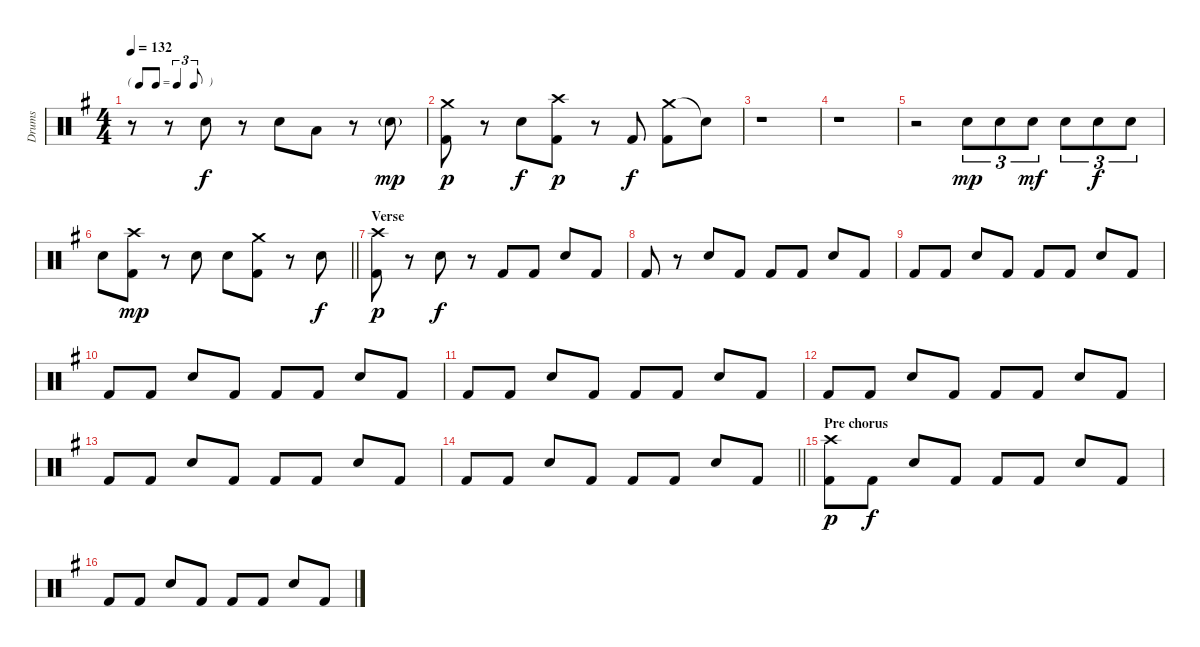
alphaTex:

\track ("Drums" "Drums") {instrument percussion}
\staff {score}
\articulation defaults
\ts (4 4)
\tf triplet8th
\tempo 132
\clef neutral
\ks g
r.8{dy p} r.8 "Electric Snare (hit)".8{dy f} r.8 "Electric Snare (hit)".8 "Low Tom (hit)".8 r.8 "Electric Snare (hit)"{g}.8{dy mp} |
("Crash medium (hit)" "Kick (hit) 2").8{dy p} r.8 "Electric Snare (hit)".8{dy f} ("Crash high (hit)" "Kick (hit) 2").8{dy p} r.8 "Kick (hit) 2".8{dy f} ("Crash medium (hit)" "Kick (hit) 2").8 "Snare (hit)"{t}.8 |
r.1 |
r.1 |
r.2 "Electric Snare (hit)".8{tu (3 2) dy mp} "Electric Snare (hit)".8{tu (3 2)} "Electric Snare (hit)".8{tu (3 2) dy mf} "Electric Snare (hit)".8{tu (3 2)} "Electric Snare (hit)".8{tu (3 2) dy f} "Electric Snare (hit)".8{tu (3 2)} |
\barLineRight lightlight "Electric Snare (hit)".8
("Crash high (hit)" "Kick (hit) 2").8{dy mp} r.8 "Electric Snare (hit)".8 "Electric Snare (hit)".8 ("Crash medium (hit)" "Kick (hit) 2").8 r.8 "Electric Snare (hit)".8{dy f} |
\section ("" "Verse")
("Crash high (hit)" "Kick (hit) 2").8{dy p} r.8 "Electric Snare (hit)".8{dy f} r.8 "Kick (hit) 2".8 "Kick (hit) 2".8 "Electric Snare (hit)".8 "Kick (hit) 2".8 |
"Kick (hit) 2".8 r.8 "Electric Snare (hit)".8 "Kick (hit) 2".8 "Kick (hit) 2".8 "Kick (hit) 2".8 "Electric Snare (hit)".8 "Kick (hit) 2".8 |
"Kick (hit) 2".8 "Kick (hit) 2".8 "Electric Snare (hit)".8 "Kick (hit) 2".8 "Kick (hit) 2".8 "Kick (hit) 2".8 "Electric Snare (hit)".8 "Kick (hit) 2".8 |
"Kick (hit) 2".8 "Kick (hit) 2".8 "Electric Snare (hit)".8 "Kick (hit) 2".8 "Kick (hit) 2".8 "Kick (hit) 2".8 "Electric Snare (hit)".8 "Kick (hit) 2".8 |
"Kick (hit) 2".8 "Kick (hit) 2".8 "Electric Snare (hit)".8 "Kick (hit) 2".8 "Kick (hit) 2".8 "Kick (hit) 2".8 "Electric Snare (hit)".8 "Kick (hit) 2".8 |
"Kick (hit) 2".8 "Kick (hit) 2".8 "Electric Snare (hit)".8 "Kick (hit) 2".8 "Kick (hit) 2".8 "Kick (hit) 2".8 "Electric Snare (hit)".8 "Kick (hit) 2".8 |
"Kick (hit) 2".8 "Kick (hit) 2".8 "Electric Snare (hit)".8 "Kick (hit) 2".8 "Kick (hit) 2".8 "Kick (hit) 2".8 "Electric Snare (hit)".8 "Kick (hit) 2".8 |
\barLineRight lightlight "Kick (hit) 2".8 "Kick (hit) 2".8 "Electric Snare (hit)".8 "Kick (hit) 2".8 "Kick (hit) 2".8 "Kick (hit) 2".8 "Electric Snare (hit)".8 "Kick (hit) 2".8
|
\section ("" "Pre chorus")
("Crash high (hit)" "Kick (hit) 2").8{dy p} "Kick (hit) 2".8{dy f} "Electric Snare (hit)".8 "Kick (hit) 2".8 "Kick (hit) 2".8 "Kick (hit) 2".8 "Electric Snare (hit)".8 "Kick (hit) 2".8 |
"Kick (hit) 2".8 "Kick (hit) 2".8 "Electric Snare (hit)".8 "Kick (hit) 2".8 "Kick (hit) 2".8 "Kick (hit) 2".8 "Electric Snare (hit)".8 "Kick (hit) 2".8
